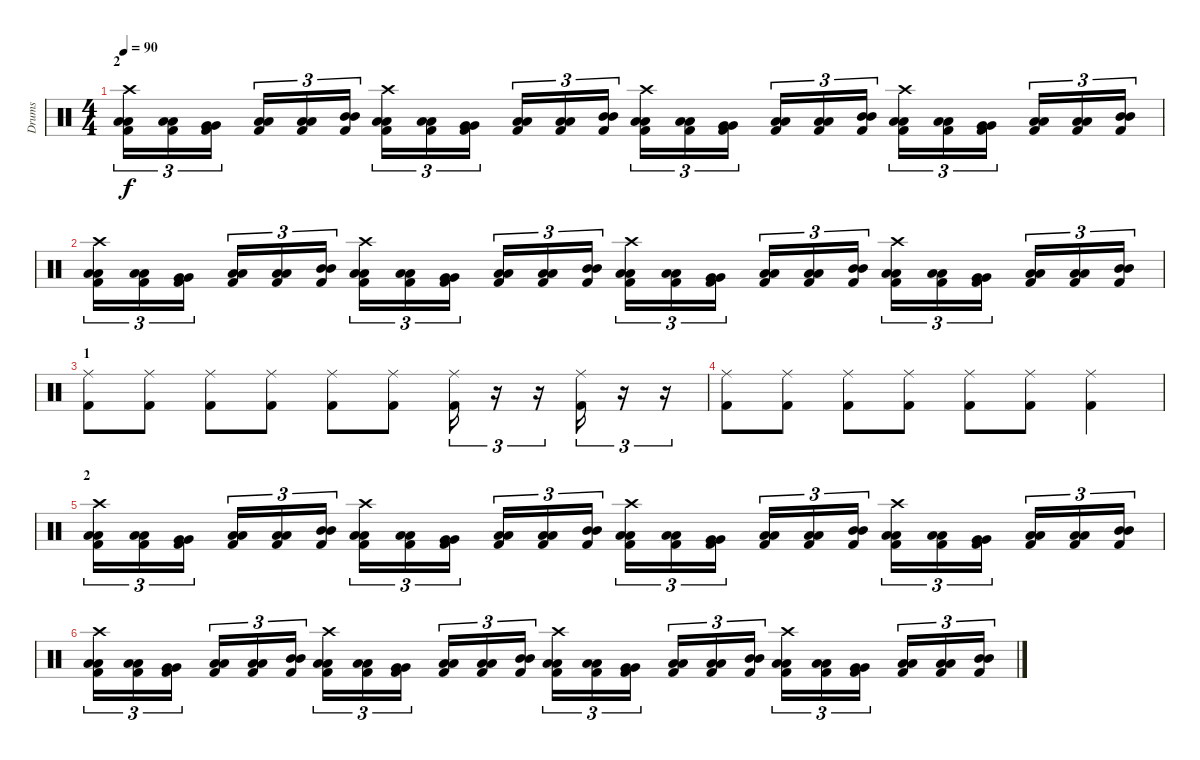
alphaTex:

\track ("Drums" "Drums") {instrument percussion}
\staff {score}
\articulation defaults
\ts (4 4)
\section ("" "2")
\tempo 90
\clef neutral
\ks c
("Crash high (hit)" "Low Floor Tom (hit)" "Low Floor Tom (hit)" "Kick (hit) 2").16{tu (3 2) dy f} ("Low Floor Tom (hit)" "Low Floor Tom (hit)" "Kick (hit) 2").16{tu (3 2)} ("Very Low Tom (hit)" "Very Low Tom (hit)" "Kick (hit) 2").16{tu (3 2)} ("Low Tom (hit)" "Low Tom (hit)" "Kick (hit) 2").16{tu (3 2)} ("Low Tom (hit)" "Low Tom (hit)" "Kick (hit) 2").16{tu (3 2)} ("Mid Tom (hit)" "Mid Tom (hit)" "Kick (hit) 2").16{tu (3 2)} ("Crash high (hit)" "Low Floor Tom (hit)" "Low Floor Tom (hit)" "Kick (hit) 2").16{tu (3 2)} ("Low Floor Tom (hit)" "Low Floor Tom (hit)" "Kick (hit) 2").16{tu (3 2)} ("Very Low Tom (hit)" "Very Low Tom (hit)" "Kick (hit) 2").16{tu (3 2)} ("Low Tom (hit)" "Low Tom (hit)" "Kick (hit) 2").16{tu (3 2)} ("Low Tom (hit)" "Low Tom (hit)" "Kick (hit) 2").16{tu (3 2)} ("Mid Tom (hit)" "Mid Tom (hit)" "Kick (hit) 2").16{tu (3 2)} ("Crash high (hit)" "Low Floor Tom (hit)" "Low Floor Tom (hit)" "Kick (hit) 2").16{tu (3 2)} ("Low Floor Tom (hit)" "Low Floor Tom (hit)" "Kick (hit) 2").16{tu (3 2)} ("Very Low Tom (hit)" "Very Low Tom (hit)" "Kick (hit) 2").16{tu (3 2)} ("Low Tom (hit)" "Low Tom (hit)" "Kick (hit) 2").16{tu (3 2)} ("Low Tom (hit)" "Low Tom (hit)" "Kick (hit) 2").16{tu (3 2)} ("Mid Tom (hit)" "Mid Tom (hit)" "Kick (hit) 2").16{tu (3 2)} ("Crash high (hit)" "Low Floor Tom (hit)" "Low Floor Tom (hit)" "Kick (hit) 2").16{tu (3 2)} ("Low Floor Tom (hit)" "Low Floor Tom (hit)" "Kick (hit) 2").16{tu (3 2)} ("Very Low Tom (hit)" "Very Low Tom (hit)" "Kick (hit) 2").16{tu (3 2)} ("Low Tom (hit)" "Low Tom (hit)" "Kick (hit) 2").16{tu (3 2)} ("Low Tom (hit)" "Low Tom (hit)" "Kick (hit) 2").16{tu (3 2)} ("Mid Tom (hit)" "Mid Tom (hit)" "Kick (hit) 2").16{tu (3 2)} |
("Crash high (hit)" "Low Floor Tom (hit)" "Low Floor Tom (hit)" "Kick (hit) 2").16{tu (3 2)} ("Low Floor Tom (hit)" "Low Floor Tom (hit)" "Kick (hit) 2").16{tu (3 2)} ("Very Low Tom (hit)" "Very Low Tom (hit)" "Kick (hit) 2").16{tu (3 2)} ("Low Tom (hit)" "Low Tom (hit)" "Kick (hit) 2").16{tu (3 2)} ("Low Tom (hit)" "Low Tom (hit)" "Kick (hit) 2").16{tu (3 2)} ("Mid Tom (hit)" "Mid Tom (hit)" "Kick (hit) 2").16{tu (3 2)} ("Crash high (hit)" "Low Floor Tom (hit)" "Low Floor Tom (hit)" "Kick (hit) 2").16{tu (3 2)} ("Low Floor Tom (hit)" "Low Floor Tom (hit)" "Kick (hit) 2").16{tu (3 2)} ("Very Low Tom (hit)" "Very Low Tom (hit)" "Kick (hit) 2").16{tu (3 2)} ("Low Tom (hit)" "Low Tom (hit)" "Kick (hit) 2").16{tu (3 2)} ("Low Tom (hit)" "Low Tom (hit)" "Kick (hit) 2").16{tu (3 2)} ("Mid Tom (hit)" "Mid Tom (hit)" "Kick (hit) 2").16{tu (3 2)} ("Crash high (hit)" "Low Floor Tom (hit)" "Low Floor Tom (hit)" "Kick (hit) 2").16{tu (3 2)} ("Low Floor Tom (hit)" "Low Floor Tom (hit)" "Kick (hit) 2").16{tu (3 2)} ("Very Low Tom (hit)" "Very Low Tom (hit)" "Kick (hit) 2").16{tu (3 2)} ("Low Tom (hit)" "Low Tom (hit)" "Kick (hit) 2").16{tu (3 2)} ("Low Tom (hit)" "Low Tom (hit)" "Kick (hit) 2").16{tu (3 2)} ("Mid Tom (hit)" "Mid Tom (hit)" "Kick (hit) 2").16{tu (3 2)} ("Crash high (hit)" "Low Floor Tom (hit)" "Low Floor Tom (hit)" "Kick (hit) 2").16{tu (3 2)} ("Low Floor Tom (hit)" "Low Floor Tom (hit)" "Kick (hit) 2").16{tu (3 2)} ("Very Low Tom (hit)" "Very Low Tom (hit)" "Kick (hit) 2").16{tu (3 2)} ("Low Tom (hit)" "Low Tom (hit)" "Kick (hit) 2").16{tu (3 2)} ("Low Tom (hit)" "Low Tom (hit)" "Kick (hit) 2").16{tu (3 2)} ("Mid Tom (hit)" "Mid Tom (hit)" "Kick (hit) 2").16{tu (3 2)} |
\section ("" "1")
("Ride (middle)" "Kick (hit) 2").8 ("Ride (middle)" "Kick (hit) 2").8 ("Ride (middle)" "Kick (hit) 2").8 ("Ride (middle)" "Kick (hit) 2").8 ("Ride (middle)" "Kick (hit) 2").8 ("Ride (middle)" "Kick (hit) 2").8 ("Ride (middle)" "Kick (hit) 2").16{tu (3 2)} r.16{tu (3 2)} r.16{tu (3 2)} ("Ride (middle)" "Kick (hit) 2").16{tu (3 2)} r.16{tu (3 2)} r.16{tu (3 2)} |
("Ride (middle)" "Kick (hit) 2").8 ("Ride (middle)" "Kick (hit) 2").8 ("Ride (middle)" "Kick (hit) 2").8 ("Ride (middle)" "Kick (hit) 2").8 ("Ride (middle)" "Kick (hit) 2").8 ("Ride (middle)" "Kick (hit) 2").8 ("Ride (middle)" "Kick (hit) 2").4 |
\section ("" "2")
("Crash high (hit)" "Low Floor Tom (hit)" "Low Floor Tom (hit)" "Kick (hit) 2").16{tu (3 2)} ("Low Floor Tom (hit)" "Low Floor Tom (hit)" "Kick (hit) 2").16{tu (3 2)} ("Very Low Tom (hit)" "Very Low Tom (hit)" "Kick (hit) 2").16{tu (3 2)} ("Low Tom (hit)" "Low Tom (hit)" "Kick (hit) 2").16{tu (3 2)} ("Low Tom (hit)" "Low Tom (hit)" "Kick (hit) 2").16{tu (3 2)} ("Mid Tom (hit)" "Mid Tom (hit)" "Kick (hit) 2").16{tu (3 2)} ("Crash high (hit)" "Low Floor Tom (hit)" "Low Floor Tom (hit)" "Kick (hit) 2").16{tu (3 2)} ("Low Floor Tom (hit)" "Low Floor Tom (hit)" "Kick (hit) 2").16{tu (3 2)} ("Very Low Tom (hit)" "Very Low Tom (hit)" "Kick (hit) 2").16{tu (3 2)} ("Low Tom (hit)" "Low Tom (hit)" "Kick (hit) 2").16{tu (3 2)} ("Low Tom (hit)" "Low Tom (hit)" "Kick (hit) 2").16{tu (3 2)} ("Mid Tom (hit)" "Mid Tom (hit)" "Kick (hit) 2").16{tu (3 2)} ("Crash high (hit)" "Low Floor Tom (hit)" "Low Floor Tom (hit)" "Kick (hit) 2").16{tu (3 2)} ("Low Floor Tom (hit)" "Low Floor Tom (hit)" "Kick (hit) 2").16{tu (3 2)} ("Very Low Tom (hit)" "Very Low Tom (hit)" "Kick (hit) 2").16{tu (3 2)} ("Low Tom (hit)" "Low Tom (hit)" "Kick (hit) 2").16{tu (3 2)} ("Low Tom (hit)" "Low Tom (hit)" "Kick (hit) 2").16{tu (3 2)} ("Mid Tom (hit)" "Mid Tom (hit)" "Kick (hit) 2").16{tu (3 2)} ("Crash high (hit)" "Low Floor Tom (hit)" "Low Floor Tom (hit)" "Kick (hit) 2").16{tu (3 2)} ("Low Floor Tom (hit)" "Low Floor Tom (hit)" "Kick (hit) 2").16{tu (3 2)} ("Very Low Tom (hit)" "Very Low Tom (hit)" "Kick (hit) 2").16{tu (3 2)} ("Low Tom (hit)" "Low Tom (hit)" "Kick (hit) 2").16{tu (3 2)} ("Low Tom (hit)" "Low Tom (hit)" "Kick (hit) 2").16{tu (3 2)} ("Mid Tom (hit)" "Mid Tom (hit)" "Kick (hit) 2").16{tu (3 2)} |
("Crash high (hit)" "Low Floor Tom (hit)" "Low Floor Tom (hit)" "Kick (hit) 2").16{tu (3 2)} ("Low Floor Tom (hit)" "Low Floor Tom (hit)" "Kick (hit) 2").16{tu (3 2)} ("Very Low Tom (hit)" "Very Low Tom (hit)" "Kick (hit) 2").16{tu (3 2)} ("Low Tom (hit)" "Low Tom (hit)" "Kick (hit) 2").16{tu (3 2)} ("Low Tom (hit)" "Low Tom (hit)" "Kick (hit) 2").16{tu (3 2)} ("Mid Tom (hit)" "Mid Tom (hit)" "Kick (hit) 2").16{tu (3 2)} ("Crash high (hit)" "Low Floor Tom (hit)" "Low Floor Tom (hit)" "Kick (hit) 2").16{tu (3 2)} ("Low Floor Tom (hit)" "Low Floor Tom (hit)" "Kick (hit) 2").16{tu (3 2)} ("Very Low Tom (hit)" "Very Low Tom (hit)" "Kick (hit) 2").16{tu (3 2)} ("Low Tom (hit)" "Low Tom (hit)" "Kick (hit) 2").16{tu (3 2)} ("Low Tom (hit)" "Low Tom (hit)" "Kick (hit) 2").16{tu (3 2)} ("Mid Tom (hit)" "Mid Tom (hit)" "Kick (hit) 2").16{tu (3 2)} ("Crash high (hit)" "Low Floor Tom (hit)" "Low Floor Tom (hit)" "Kick (hit) 2").16{tu (3 2)} ("Low Floor Tom (hit)" "Low Floor Tom (hit)" "Kick (hit) 2").16{tu (3 2)} ("Very Low Tom (hit)" "Very Low Tom (hit)" "Kick (hit) 2").16{tu (3 2)} ("Low Tom (hit)" "Low Tom (hit)" "Kick (hit) 2").16{tu (3 2)} ("Low Tom (hit)" "Low Tom (hit)" "Kick (hit) 2").16{tu (3 2)} ("Mid Tom (hit)" "Mid Tom (hit)" "Kick (hit) 2").16{tu (3 2)} ("Crash high (hit)" "Low Floor Tom (hit)" "Low Floor Tom (hit)" "Kick (hit) 2").16{tu (3 2)} ("Low Floor Tom (hit)" "Low Floor Tom (hit)" "Kick (hit) 2").16{tu (3 2)} ("Very Low Tom (hit)" "Very Low Tom (hit)" "Kick (hit) 2").16{tu (3 2)} ("Low Tom (hit)" "Low Tom (hit)" "Kick (hit) 2").16{tu (3 2)} ("Low Tom (hit)" "Low Tom (hit)" "Kick (hit) 2").16{tu (3 2)} ("Mid Tom (hit)" "Mid Tom (hit)" "Kick (hit) 2").16{tu (3 2)}
